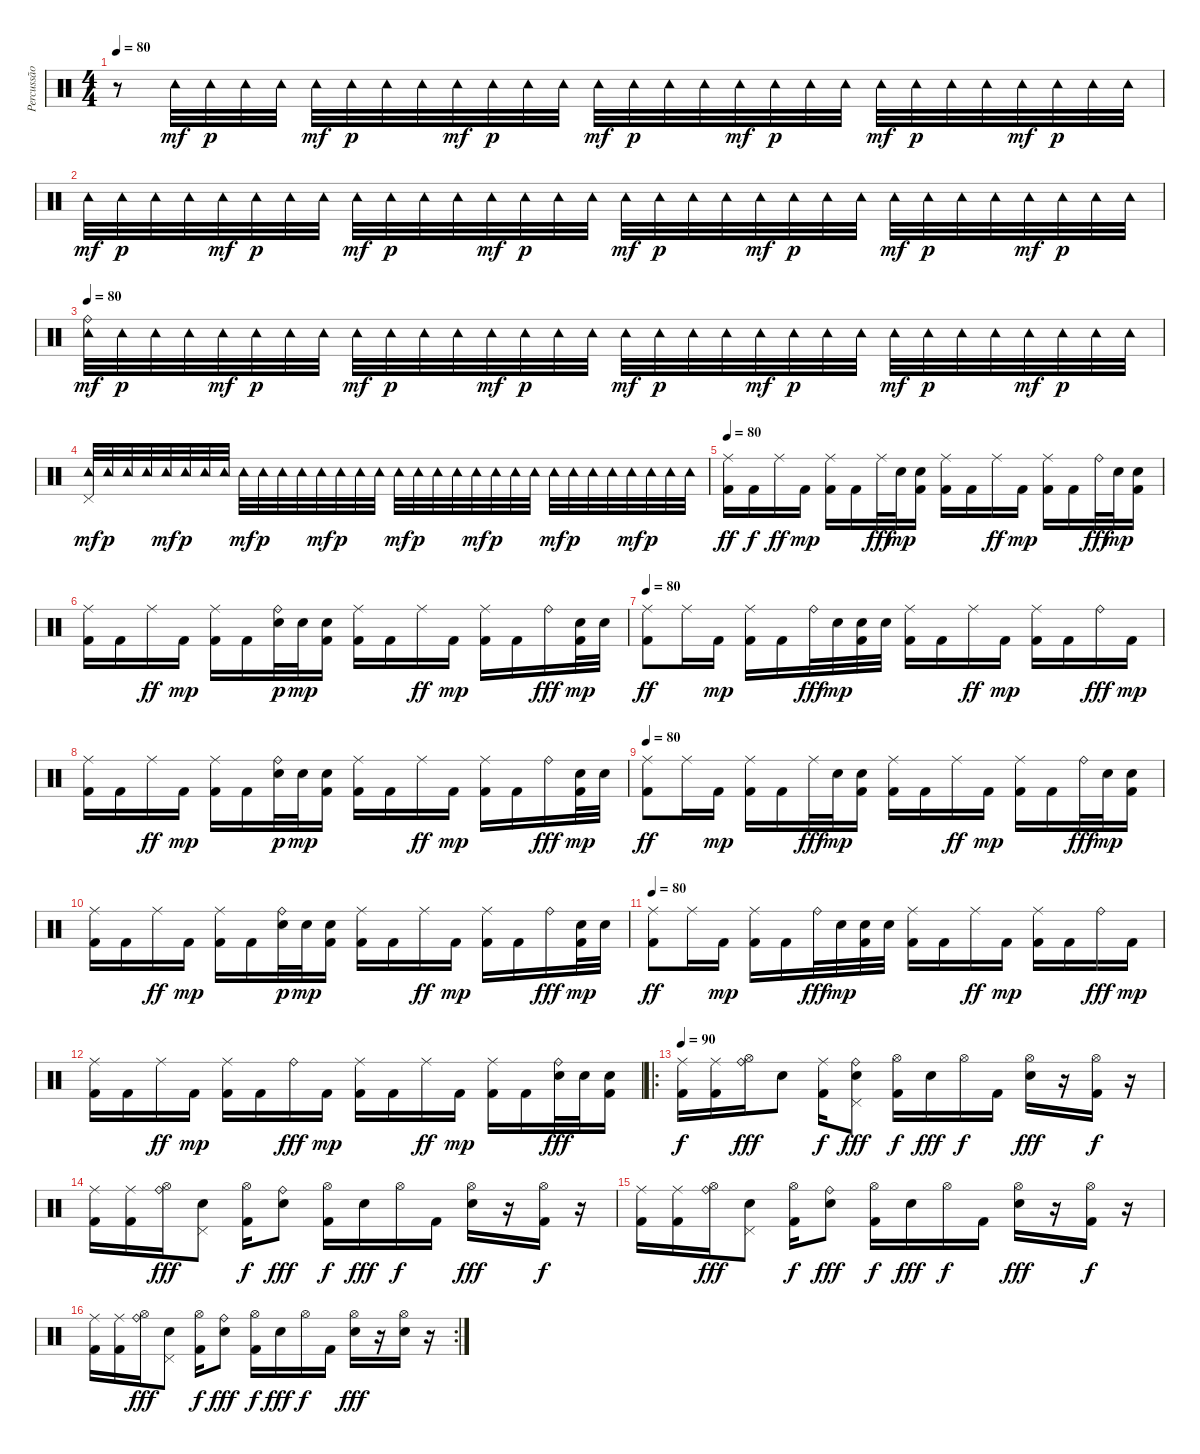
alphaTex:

\track ("Percussão" "Percussão") {instrument percussion}
\staff {score}
\articulation defaults
\ts (4 4)
\tempo 80
\clef neutral
\ks c
r.8{dy fff volume 10} "Tambourine (hit)".32{dy mf} "Tambourine (hit)".32{dy p} "Tambourine (hit)".32 "Tambourine (hit)".32 "Tambourine (hit)".32{dy mf} "Tambourine (hit)".32{dy p} "Tambourine (hit)".32 "Tambourine (hit)".32 "Tambourine (hit)".32{dy mf} "Tambourine (hit)".32{dy p} "Tambourine (hit)".32 "Tambourine (hit)".32 "Tambourine (hit)".32{dy mf} "Tambourine (hit)".32{dy p} "Tambourine (hit)".32 "Tambourine (hit)".32 "Tambourine (hit)".32{dy mf} "Tambourine (hit)".32{dy p} "Tambourine (hit)".32 "Tambourine (hit)".32 "Tambourine (hit)".32{dy mf} "Tambourine (hit)".32{dy p} "Tambourine (hit)".32 "Tambourine (hit)".32 "Tambourine (hit)".32{dy mf} "Tambourine (hit)".32{dy p} "Tambourine (hit)".32 "Tambourine (hit)".32 |
"Tambourine (hit)".32{dy mf} "Tambourine (hit)".32{dy p} "Tambourine (hit)".32 "Tambourine (hit)".32 "Tambourine (hit)".32{dy mf} "Tambourine (hit)".32{dy p} "Tambourine (hit)".32 "Tambourine (hit)".32 "Tambourine (hit)".32{dy mf} "Tambourine (hit)".32{dy p} "Tambourine (hit)".32 "Tambourine (hit)".32 "Tambourine (hit)".32{dy mf} "Tambourine (hit)".32{dy p} "Tambourine (hit)".32 "Tambourine (hit)".32 "Tambourine (hit)".32{dy mf} "Tambourine (hit)".32{dy p} "Tambourine (hit)".32 "Tambourine (hit)".32 "Tambourine (hit)".32{dy mf} "Tambourine (hit)".32{dy p} "Tambourine (hit)".32 "Tambourine (hit)".32 "Tambourine (hit)".32{dy mf} "Tambourine (hit)".32{dy p} "Tambourine (hit)".32 "Tambourine (hit)".32 "Tambourine (hit)".32{dy mf} "Tambourine (hit)".32{dy p} "Tambourine (hit)".32 "Tambourine (hit)".32 |
\tempo 80
("Ride (bell)" "Tambourine (hit)").32{dy mf} "Tambourine (hit)".32{dy p} "Tambourine (hit)".32 "Tambourine (hit)".32 "Tambourine (hit)".32{dy mf} "Tambourine (hit)".32{dy p} "Tambourine (hit)".32 "Tambourine (hit)".32 "Tambourine (hit)".32{dy mf} "Tambourine (hit)".32{dy p} "Tambourine (hit)".32 "Tambourine (hit)".32 "Tambourine (hit)".32{dy mf} "Tambourine (hit)".32{dy p} "Tambourine (hit)".32 "Tambourine (hit)".32 "Tambourine (hit)".32{dy mf} "Tambourine (hit)".32{dy p} "Tambourine (hit)".32 "Tambourine (hit)".32 "Tambourine (hit)".32{dy mf} "Tambourine (hit)".32{dy p} "Tambourine (hit)".32 "Tambourine (hit)".32 "Tambourine (hit)".32{dy mf} "Tambourine (hit)".32{dy p} "Tambourine (hit)".32 "Tambourine (hit)".32 "Tambourine (hit)".32{dy mf} "Tambourine (hit)".32{dy p} "Tambourine (hit)".32 "Tambourine (hit)".32 |
("Pedal Hi-Hat (hit)" "Tambourine (hit)").32{dy mf} "Tambourine (hit)".32{dy p} "Tambourine (hit)".32 "Tambourine (hit)".32 "Tambourine (hit)".32{dy mf} "Tambourine (hit)".32{dy p} "Tambourine (hit)".32 "Tambourine (hit)".32 "Tambourine (hit)".32{dy mf} "Tambourine (hit)".32{dy p} "Tambourine (hit)".32 "Tambourine (hit)".32 "Tambourine (hit)".32{dy mf} "Tambourine (hit)".32{dy p} "Tambourine (hit)".32 "Tambourine (hit)".32 "Tambourine (hit)".32{dy mf} "Tambourine (hit)".32{dy p} "Tambourine (hit)".32 "Tambourine (hit)".32 "Tambourine (hit)".32{dy mf} "Tambourine (hit)".32{dy p} "Tambourine (hit)".32 "Tambourine (hit)".32 "Tambourine (hit)".32{dy mf} "Tambourine (hit)".32{dy p} "Tambourine (hit)".32 "Tambourine (hit)".32 "Tambourine (hit)".32{dy mf} "Tambourine (hit)".32{dy p} "Tambourine (hit)".32 "Tambourine (hit)".32 |
\tempo 80
("Ride (middle)" "Kick (hit) 2").16{dy ff volume 16} "Kick (hit) 2".16{dy f} "Ride (middle)".16{dy ff} "Kick (hit) 2".16{dy mp} ("Ride (middle)" "Kick (hit) 2").16 "Kick (hit) 2".16 "Ride (middle)".32{dy fff} "Electric Snare (hit)".32{dy mp} ("Electric Snare (hit)" "Kick (hit) 2").16 ("Ride (middle)" "Kick (hit) 2").16 "Kick (hit) 2".16 "Ride (middle)".16{dy ff} "Kick (hit) 2".16{dy mp} ("Ride (middle)" "Kick (hit) 2").16 "Kick (hit) 2".16 "Ride (bell)".32{dy fff} "Electric Snare (hit)".32{dy mp} ("Electric Snare (hit)" "Kick (hit) 2").16 |
("Ride (middle)" "Kick (hit) 2").16 "Kick (hit) 2".16 "Ride (middle)".16{dy ff} "Kick (hit) 2".16{dy mp} ("Ride (middle)" "Kick (hit) 2").16 "Kick (hit) 2".16 ("Ride (bell)" "Electric Snare (hit)").32{dy p} "Electric Snare (hit)".32{dy mp} ("Electric Snare (hit)" "Kick (hit) 2").16 ("Ride (middle)" "Kick (hit) 2").16 "Kick (hit) 2".16 "Ride (middle)".16{dy ff} "Kick (hit) 2".16{dy mp} ("Ride (middle)" "Kick (hit) 2").16 "Kick (hit) 2".16 "Ride (bell)".16{dy fff} ("Electric Snare (hit)" "Kick (hit) 2").32{dy mp} "Electric Snare (hit)".32 |
\tempo 80
("Ride (middle)" "Kick (hit) 2").8{dy ff} "Ride (middle)".16 "Kick (hit) 2".16{dy mp} ("Ride (middle)" "Kick (hit) 2").16 "Kick (hit) 2".16 "Ride (bell)".32{dy fff} "Electric Snare (hit)".32{dy mp} ("Electric Snare (hit)" "Kick (hit) 2").32 "Electric Snare (hit)".32 ("Ride (middle)" "Kick (hit) 2").16 "Kick (hit) 2".16 "Ride (middle)".16{dy ff} "Kick (hit) 2".16{dy mp} ("Ride (middle)" "Kick (hit) 2").16 "Kick (hit) 2".16 "Ride (bell)".16{dy fff} "Kick (hit) 2".16{dy mp} |
("Ride (middle)" "Kick (hit) 2").16 "Kick (hit) 2".16 "Ride (middle)".16{dy ff} "Kick (hit) 2".16{dy mp} ("Ride (middle)" "Kick (hit) 2").16 "Kick (hit) 2".16 ("Ride (bell)" "Electric Snare (hit)").32{dy p} "Electric Snare (hit)".32{dy mp} ("Electric Snare (hit)" "Kick (hit) 2").16 ("Ride (middle)" "Kick (hit) 2").16 "Kick (hit) 2".16 "Ride (middle)".16{dy ff} "Kick (hit) 2".16{dy mp} ("Ride (middle)" "Kick (hit) 2").16 "Kick (hit) 2".16 "Ride (bell)".16{dy fff} ("Electric Snare (hit)" "Kick (hit) 2").32{dy mp} "Electric Snare (hit)".32 |
\tempo 80
("Ride (middle)" "Kick (hit) 2").8{dy ff} "Ride (middle)".16 "Kick (hit) 2".16{dy mp} ("Ride (middle)" "Kick (hit) 2").16 "Kick (hit) 2".16 "Ride (middle)".32{dy fff} "Electric Snare (hit)".32{dy mp} ("Electric Snare (hit)" "Kick (hit) 2").16 ("Ride (middle)" "Kick (hit) 2").16 "Kick (hit) 2".16 "Ride (middle)".16{dy ff} "Kick (hit) 2".16{dy mp} ("Ride (middle)" "Kick (hit) 2").16 "Kick (hit) 2".16 "Ride (bell)".32{dy fff} "Electric Snare (hit)".32{dy mp} ("Electric Snare (hit)" "Kick (hit) 2").16 |
("Ride (middle)" "Kick (hit) 2").16 "Kick (hit) 2".16 "Ride (middle)".16{dy ff} "Kick (hit) 2".16{dy mp} ("Ride (middle)" "Kick (hit) 2").16 "Kick (hit) 2".16 ("Ride (bell)" "Electric Snare (hit)").32{dy p} "Electric Snare (hit)".32{dy mp} ("Electric Snare (hit)" "Kick (hit) 2").16 ("Ride (middle)" "Kick (hit) 2").16 "Kick (hit) 2".16 "Ride (middle)".16{dy ff} "Kick (hit) 2".16{dy mp} ("Ride (middle)" "Kick (hit) 2").16 "Kick (hit) 2".16 "Ride (bell)".16{dy fff} ("Electric Snare (hit)" "Kick (hit) 2").32{dy mp} "Electric Snare (hit)".32 |
\tempo 80
("Ride (middle)" "Kick (hit) 2").8{dy ff} "Ride (middle)".16 "Kick (hit) 2".16{dy mp} ("Ride (middle)" "Kick (hit) 2").16 "Kick (hit) 2".16 "Ride (bell)".32{dy fff} "Electric Snare (hit)".32{dy mp} ("Electric Snare (hit)" "Kick (hit) 2").32 "Electric Snare (hit)".32 ("Ride (middle)" "Kick (hit) 2").16 "Kick (hit) 2".16 "Ride (middle)".16{dy ff} "Kick (hit) 2".16{dy mp} ("Ride (middle)" "Kick (hit) 2").16 "Kick (hit) 2".16 "Ride (bell)".16{dy fff} "Kick (hit) 2".16{dy mp} |
("Ride (middle)" "Kick (hit) 2").16 "Kick (hit) 2".16 "Ride (middle)".16{dy ff} "Kick (hit) 2".16{dy mp} ("Ride (middle)" "Kick (hit) 2").16 "Kick (hit) 2".16 "Ride (bell)".16{dy fff} "Kick (hit) 2".16{dy mp} ("Ride (middle)" "Kick (hit) 2").16 "Kick (hit) 2".16 "Ride (middle)".16{dy ff} "Kick (hit) 2".16{dy mp} ("Ride (middle)" "Kick (hit) 2").16 "Kick (hit) 2".16 ("Ride (bell)" "Electric Snare (hit)").32{dy fff} "Electric Snare (hit)".32 ("Electric Snare (hit)" "Kick (hit) 2").16 |
\ro
\tempo 90
("Ride (middle)" "Kick (hit) 2").16{dy f} ("Ride (middle)" "Kick (hit) 2").16 ("Ride (bell)" "Hi-Hat (open)").16{dy fff} "Electric Snare (hit)".8 ("Ride (middle)" "Kick (hit) 2").16{dy f} ("Ride (bell)" "Pedal Hi-Hat (hit)" "Electric Snare (hit)").8{dy fff} ("Hi-Hat (open)" "Kick (hit) 2").16{dy f} "Electric Snare (hit)".16{dy fff} "Hi-Hat (open)".16{dy f} "Kick (hit) 2".16 ("Hi-Hat (open)" "Electric Snare (hit)").16{dy fff} r.16 ("Hi-Hat (open)" "Kick (hit) 2").16{dy f} r.16 |
("Ride (middle)" "Kick (hit) 2").16 ("Ride (middle)" "Kick (hit) 2").16 ("Ride (bell)" "Hi-Hat (open)").16{dy fff} ("Pedal Hi-Hat (hit)" "Electric Snare (hit)").8 ("Hi-Hat (open)" "Kick (hit) 2").16{dy f} ("Ride (bell)" "Electric Snare (hit)").8{dy fff} ("Hi-Hat (open)" "Kick (hit) 2").16{dy f} "Electric Snare (hit)".16{dy fff} "Hi-Hat (open)".16{dy f} "Kick (hit) 2".16 ("Hi-Hat (open)" "Electric Snare (hit)").16{dy fff} r.16 ("Hi-Hat (open)" "Kick (hit) 2").16{dy f} r.16 |
("Ride (middle)" "Kick (hit) 2").16 ("Ride (middle)" "Kick (hit) 2").16 ("Ride (bell)" "Hi-Hat (open)").16{dy fff} ("Pedal Hi-Hat (hit)" "Electric Snare (hit)").8 ("Hi-Hat (open)" "Kick (hit) 2").16{dy f} ("Ride (bell)" "Electric Snare (hit)").8{dy fff} ("Hi-Hat (open)" "Kick (hit) 2").16{dy f} "Electric Snare (hit)".16{dy fff} "Hi-Hat (open)".16{dy f} "Kick (hit) 2".16 ("Hi-Hat (open)" "Electric Snare (hit)").16{dy fff} r.16 ("Hi-Hat (open)" "Kick (hit) 2").16{dy f} r.16 |
\rc 2
("Ride (middle)" "Kick (hit) 2").16 ("Ride (middle)" "Kick (hit) 2").16 ("Ride (bell)" "Hi-Hat (open)").16{dy fff} ("Pedal Hi-Hat (hit)" "Electric Snare (hit)").8 ("Hi-Hat (open)" "Kick (hit) 2").16{dy f} ("Ride (bell)" "Electric Snare (hit)").8{dy fff} ("Hi-Hat (open)" "Kick (hit) 2").16{dy f} "Electric Snare (hit)".16{dy fff} "Hi-Hat (open)".16{dy f} "Kick (hit) 2".16 ("Hi-Hat (open)" "Electric Snare (hit)").16{dy fff} r.16 ("Hi-Hat (open)" "Electric Snare (hit)").16 r.16
